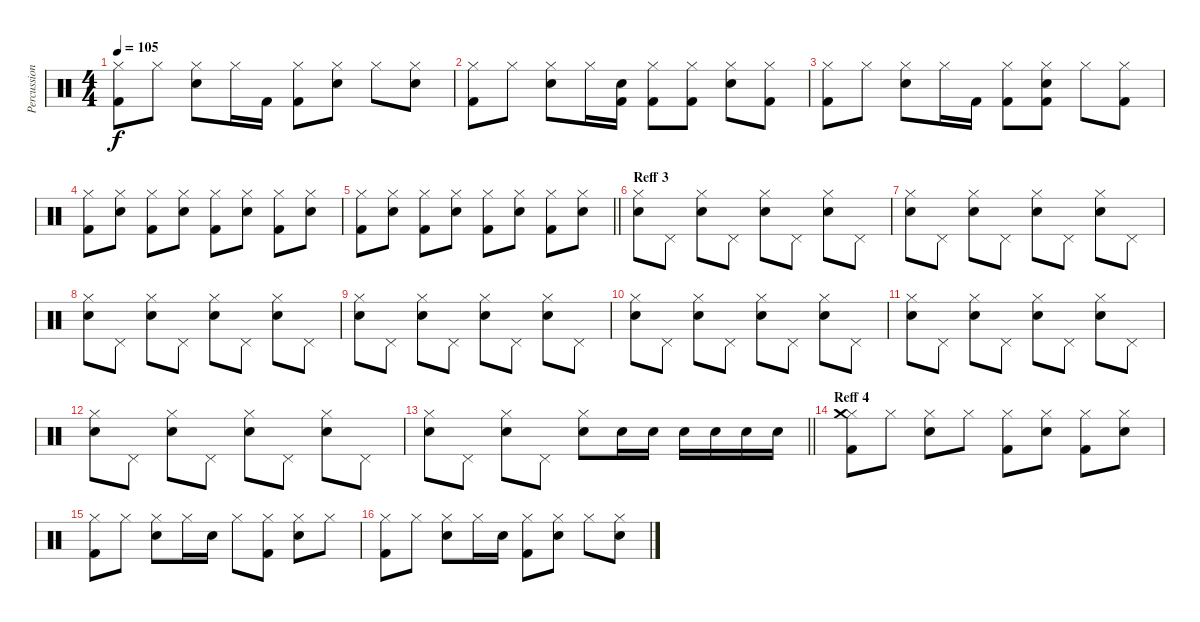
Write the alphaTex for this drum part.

\track ("Percussion" "Percussion") {instrument percussion}
\staff {score}
\articulation defaults
\ts (4 4)
\tempo 105
\clef neutral
\ks c
("Hi-Hat (closed)" "Kick (hit) 2").8{dy f} "Hi-Hat (closed)".8 ("Hi-Hat (closed)" "Electric Snare (hit)").8 "Hi-Hat (closed)".16 "Kick (hit) 2".16 ("Hi-Hat (closed)" "Kick (hit) 2").8 ("Hi-Hat (closed)" "Electric Snare (hit)").8 "Hi-Hat (closed)".8 ("Hi-Hat (closed)" "Electric Snare (hit)").8 |
("Hi-Hat (closed)" "Kick (hit) 2").8 "Hi-Hat (closed)".8 ("Hi-Hat (closed)" "Electric Snare (hit)").8 "Hi-Hat (closed)".16 ("Electric Snare (hit)" "Kick (hit) 2").16 ("Hi-Hat (closed)" "Kick (hit) 2").8 ("Hi-Hat (closed)" "Kick (hit) 2").8 ("Hi-Hat (closed)" "Electric Snare (hit)").8 ("Hi-Hat (closed)" "Kick (hit) 2").8 |
("Hi-Hat (closed)" "Kick (hit) 2").8 "Hi-Hat (closed)".8 ("Hi-Hat (closed)" "Electric Snare (hit)").8 "Hi-Hat (closed)".16 "Kick (hit) 2".16 ("Hi-Hat (closed)" "Kick (hit) 2").8 ("Hi-Hat (closed)" "Electric Snare (hit)" "Kick (hit) 2").8 "Hi-Hat (closed)".8 ("Hi-Hat (closed)" "Kick (hit) 2").8 |
("Hi-Hat (closed)" "Kick (hit) 2").8 ("Hi-Hat (closed)" "Electric Snare (hit)").8 ("Hi-Hat (closed)" "Kick (hit) 2").8 ("Hi-Hat (closed)" "Electric Snare (hit)").8 ("Hi-Hat (closed)" "Kick (hit) 2").8 ("Hi-Hat (closed)" "Electric Snare (hit)").8 ("Hi-Hat (closed)" "Kick (hit) 2").8 ("Hi-Hat (closed)" "Electric Snare (hit)").8 |
\barLineRight lightlight
("Hi-Hat (closed)" "Kick (hit) 2").8 ("Hi-Hat (closed)" "Electric Snare (hit)").8 ("Hi-Hat (closed)" "Kick (hit) 2").8 ("Hi-Hat (closed)" "Electric Snare (hit)").8 ("Hi-Hat (closed)" "Kick (hit) 2").8 ("Hi-Hat (closed)" "Electric Snare (hit)").8 ("Hi-Hat (closed)" "Kick (hit) 2").8 ("Hi-Hat (closed)" "Electric Snare (hit)").8 |
\section ("" "Reff 3")
("Hi-Hat (closed)" "Electric Snare (hit)").8 "Pedal Hi-Hat (hit)".8 ("Hi-Hat (closed)" "Electric Snare (hit)").8 "Pedal Hi-Hat (hit)".8 ("Hi-Hat (closed)" "Electric Snare (hit)").8 "Pedal Hi-Hat (hit)".8 ("Hi-Hat (closed)" "Electric Snare (hit)").8 "Pedal Hi-Hat (hit)".8 |
("Hi-Hat (closed)" "Electric Snare (hit)").8 "Pedal Hi-Hat (hit)".8 ("Hi-Hat (closed)" "Electric Snare (hit)").8 "Pedal Hi-Hat (hit)".8 ("Hi-Hat (closed)" "Electric Snare (hit)").8 "Pedal Hi-Hat (hit)".8 ("Hi-Hat (closed)" "Electric Snare (hit)").8 "Pedal Hi-Hat (hit)".8 |
("Hi-Hat (closed)" "Electric Snare (hit)").8 "Pedal Hi-Hat (hit)".8 ("Hi-Hat (closed)" "Electric Snare (hit)").8 "Pedal Hi-Hat (hit)".8 ("Hi-Hat (closed)" "Electric Snare (hit)").8 "Pedal Hi-Hat (hit)".8 ("Hi-Hat (closed)" "Electric Snare (hit)").8 "Pedal Hi-Hat (hit)".8 |
("Hi-Hat (closed)" "Electric Snare (hit)").8 "Pedal Hi-Hat (hit)".8 ("Hi-Hat (closed)" "Electric Snare (hit)").8 "Pedal Hi-Hat (hit)".8 ("Hi-Hat (closed)" "Electric Snare (hit)").8 "Pedal Hi-Hat (hit)".8 ("Hi-Hat (closed)" "Electric Snare (hit)").8 "Pedal Hi-Hat (hit)".8 |
("Hi-Hat (closed)" "Electric Snare (hit)").8 "Pedal Hi-Hat (hit)".8 ("Hi-Hat (closed)" "Electric Snare (hit)").8 "Pedal Hi-Hat (hit)".8 ("Hi-Hat (closed)" "Electric Snare (hit)").8 "Pedal Hi-Hat (hit)".8 ("Hi-Hat (closed)" "Electric Snare (hit)").8 "Pedal Hi-Hat (hit)".8 |
("Hi-Hat (closed)" "Electric Snare (hit)").8 "Pedal Hi-Hat (hit)".8 ("Hi-Hat (closed)" "Electric Snare (hit)").8 "Pedal Hi-Hat (hit)".8 ("Hi-Hat (closed)" "Electric Snare (hit)").8 "Pedal Hi-Hat (hit)".8 ("Hi-Hat (closed)" "Electric Snare (hit)").8 "Pedal Hi-Hat (hit)".8 |
("Hi-Hat (closed)" "Electric Snare (hit)").8 "Pedal Hi-Hat (hit)".8 ("Hi-Hat (closed)" "Electric Snare (hit)").8 "Pedal Hi-Hat (hit)".8 ("Hi-Hat (closed)" "Electric Snare (hit)").8 "Pedal Hi-Hat (hit)".8 ("Hi-Hat (closed)" "Electric Snare (hit)").8 "Pedal Hi-Hat (hit)".8 |
\barLineRight lightlight
("Hi-Hat (closed)" "Electric Snare (hit)").8 "Pedal Hi-Hat (hit)".8 ("Hi-Hat (closed)" "Electric Snare (hit)").8 "Pedal Hi-Hat (hit)".8 ("Hi-Hat (closed)" "Electric Snare (hit)").8 "Electric Snare (hit)".16 "Electric Snare (hit)".16 "Electric Snare (hit)".16 "Electric Snare (hit)".16 "Electric Snare (hit)".16 "Electric Snare (hit)".16 |
\section ("" "Reff 4")
("Hi-Hat (closed)" "Crash medium (hit)" "Kick (hit) 2").8 "Hi-Hat (closed)".8 ("Hi-Hat (closed)" "Electric Snare (hit)").8 "Hi-Hat (closed)".8 ("Hi-Hat (closed)" "Kick (hit) 2").8 ("Hi-Hat (closed)" "Electric Snare (hit)").8 ("Hi-Hat (closed)" "Kick (hit) 2").8 ("Hi-Hat (closed)" "Electric Snare (hit)").8 |
("Hi-Hat (closed)" "Kick (hit) 2").8 "Hi-Hat (closed)".8 ("Hi-Hat (closed)" "Electric Snare (hit)").8 "Hi-Hat (closed)".16 "Electric Snare (hit)".16 "Hi-Hat (closed)".8 ("Hi-Hat (closed)" "Kick (hit) 2").8 ("Hi-Hat (closed)" "Electric Snare (hit)").8 "Hi-Hat (closed)".8 |
("Hi-Hat (closed)" "Kick (hit) 2").8 "Hi-Hat (closed)".8 ("Hi-Hat (closed)" "Electric Snare (hit)").8 "Hi-Hat (closed)".16 "Electric Snare (hit)".16 ("Hi-Hat (closed)" "Kick (hit) 2").8 ("Hi-Hat (closed)" "Electric Snare (hit)").8 "Hi-Hat (closed)".8 ("Hi-Hat (closed)" "Electric Snare (hit)").8
